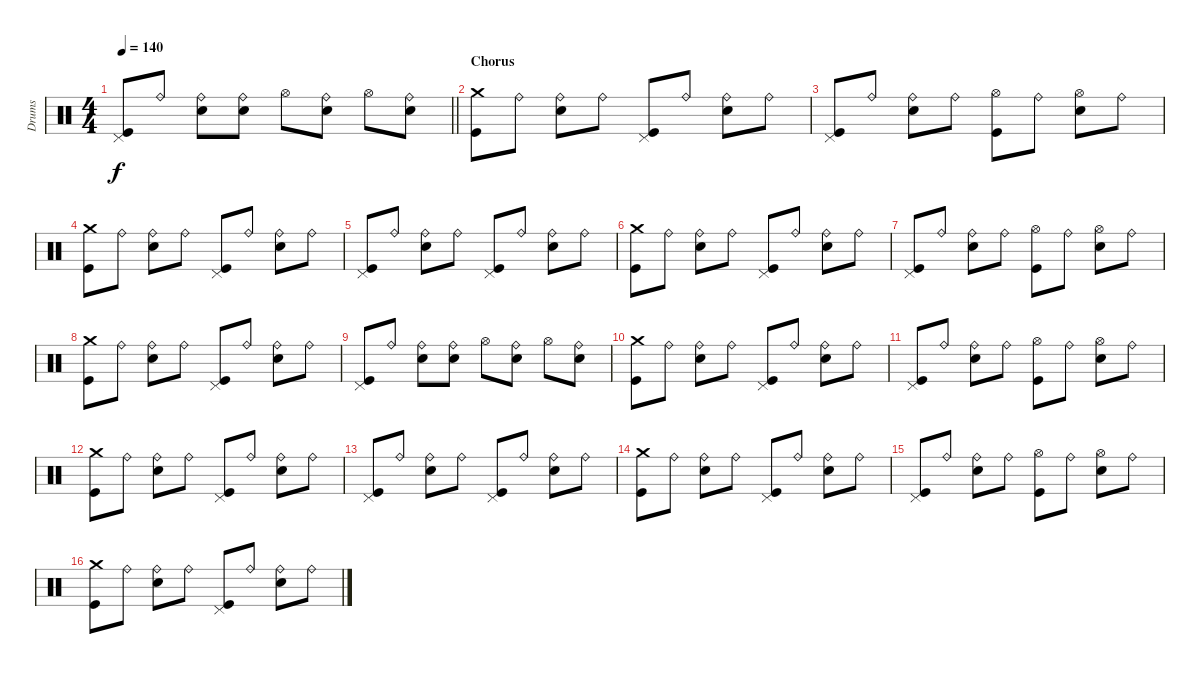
\track ("Drums" "Drums") {instrument percussion}
\staff {score}
\articulation defaults
\ts (4 4)
\tempo 140
\clef neutral
\barLineRight lightlight
\ks c
("Pedal Hi-Hat (hit)" "Kick (hit)").8{dy f} "Ride (bell)".8 ("Ride (bell)" "Snare (hit) 2").8 ("Ride (bell)" "Snare (hit) 2").8 "Hi-Hat (open)".8 ("Ride (bell)" "Snare (hit) 2").8 "Hi-Hat (open)".8 ("Ride (bell)" "Snare (hit) 2").8 |
\section ("" "Chorus")
("Crash medium (hit)" "Kick (hit)").8 "Ride (bell)".8 ("Ride (bell)" "Snare (hit) 2").8 "Ride (bell)".8 ("Pedal Hi-Hat (hit)" "Kick (hit)").8 "Ride (bell)".8 ("Ride (bell)" "Snare (hit) 2").8 "Ride (bell)".8 |
("Pedal Hi-Hat (hit)" "Kick (hit)").8 "Ride (bell)".8 ("Ride (bell)" "Snare (hit) 2").8 "Ride (bell)".8 ("Hi-Hat (open)" "Kick (hit)").8 "Ride (bell)".8 ("Hi-Hat (open)" "Snare (hit) 2").8 "Ride (bell)".8 |
("Crash medium (hit)" "Kick (hit)").8 "Ride (bell)".8 ("Ride (bell)" "Snare (hit) 2").8 "Ride (bell)".8 ("Pedal Hi-Hat (hit)" "Kick (hit)").8 "Ride (bell)".8 ("Ride (bell)" "Snare (hit) 2").8 "Ride (bell)".8 |
("Pedal Hi-Hat (hit)" "Kick (hit)").8 "Ride (bell)".8 ("Ride (bell)" "Snare (hit) 2").8 "Ride (bell)".8 ("Pedal Hi-Hat (hit)" "Kick (hit)").8 "Ride (bell)".8 ("Ride (bell)" "Snare (hit) 2").8 "Ride (bell)".8 |
("Crash medium (hit)" "Kick (hit)").8 "Ride (bell)".8 ("Ride (bell)" "Snare (hit) 2").8 "Ride (bell)".8 ("Pedal Hi-Hat (hit)" "Kick (hit)").8 "Ride (bell)".8 ("Ride (bell)" "Snare (hit) 2").8 "Ride (bell)".8 |
("Pedal Hi-Hat (hit)" "Kick (hit)").8 "Ride (bell)".8 ("Ride (bell)" "Snare (hit) 2").8 "Ride (bell)".8 ("Hi-Hat (open)" "Kick (hit)").8 "Ride (bell)".8 ("Hi-Hat (open)" "Snare (hit) 2").8 "Ride (bell)".8 |
("Crash medium (hit)" "Kick (hit)").8 "Ride (bell)".8 ("Ride (bell)" "Snare (hit) 2").8 "Ride (bell)".8 ("Pedal Hi-Hat (hit)" "Kick (hit)").8 "Ride (bell)".8 ("Ride (bell)" "Snare (hit) 2").8 "Ride (bell)".8 |
("Pedal Hi-Hat (hit)" "Kick (hit)").8 "Ride (bell)".8 ("Ride (bell)" "Snare (hit) 2").8 ("Ride (bell)" "Snare (hit) 2").8 "Hi-Hat (open)".8 ("Ride (bell)" "Snare (hit) 2").8 "Hi-Hat (open)".8 ("Ride (bell)" "Snare (hit) 2").8 |
("Crash medium (hit)" "Kick (hit)").8 "Ride (bell)".8 ("Ride (bell)" "Snare (hit) 2").8 "Ride (bell)".8 ("Pedal Hi-Hat (hit)" "Kick (hit)").8 "Ride (bell)".8 ("Ride (bell)" "Snare (hit) 2").8 "Ride (bell)".8 |
("Pedal Hi-Hat (hit)" "Kick (hit)").8 "Ride (bell)".8 ("Ride (bell)" "Snare (hit) 2").8 "Ride (bell)".8 ("Hi-Hat (open)" "Kick (hit)").8 "Ride (bell)".8 ("Hi-Hat (open)" "Snare (hit) 2").8 "Ride (bell)".8 |
("Crash medium (hit)" "Kick (hit)").8 "Ride (bell)".8 ("Ride (bell)" "Snare (hit) 2").8 "Ride (bell)".8 ("Pedal Hi-Hat (hit)" "Kick (hit)").8 "Ride (bell)".8 ("Ride (bell)" "Snare (hit) 2").8 "Ride (bell)".8 |
("Pedal Hi-Hat (hit)" "Kick (hit)").8 "Ride (bell)".8 ("Ride (bell)" "Snare (hit) 2").8 "Ride (bell)".8 ("Pedal Hi-Hat (hit)" "Kick (hit)").8 "Ride (bell)".8 ("Ride (bell)" "Snare (hit) 2").8 "Ride (bell)".8 |
("Crash medium (hit)" "Kick (hit)").8 "Ride (bell)".8 ("Ride (bell)" "Snare (hit) 2").8 "Ride (bell)".8 ("Pedal Hi-Hat (hit)" "Kick (hit)").8 "Ride (bell)".8 ("Ride (bell)" "Snare (hit) 2").8 "Ride (bell)".8 |
("Pedal Hi-Hat (hit)" "Kick (hit)").8 "Ride (bell)".8 ("Ride (bell)" "Snare (hit) 2").8 "Ride (bell)".8 ("Hi-Hat (open)" "Kick (hit)").8 "Ride (bell)".8 ("Hi-Hat (open)" "Snare (hit) 2").8 "Ride (bell)".8 |
("Crash medium (hit)" "Kick (hit)").8 "Ride (bell)".8 ("Ride (bell)" "Snare (hit) 2").8 "Ride (bell)".8 ("Pedal Hi-Hat (hit)" "Kick (hit)").8 "Ride (bell)".8 ("Ride (bell)" "Snare (hit) 2").8 "Ride (bell)".8
